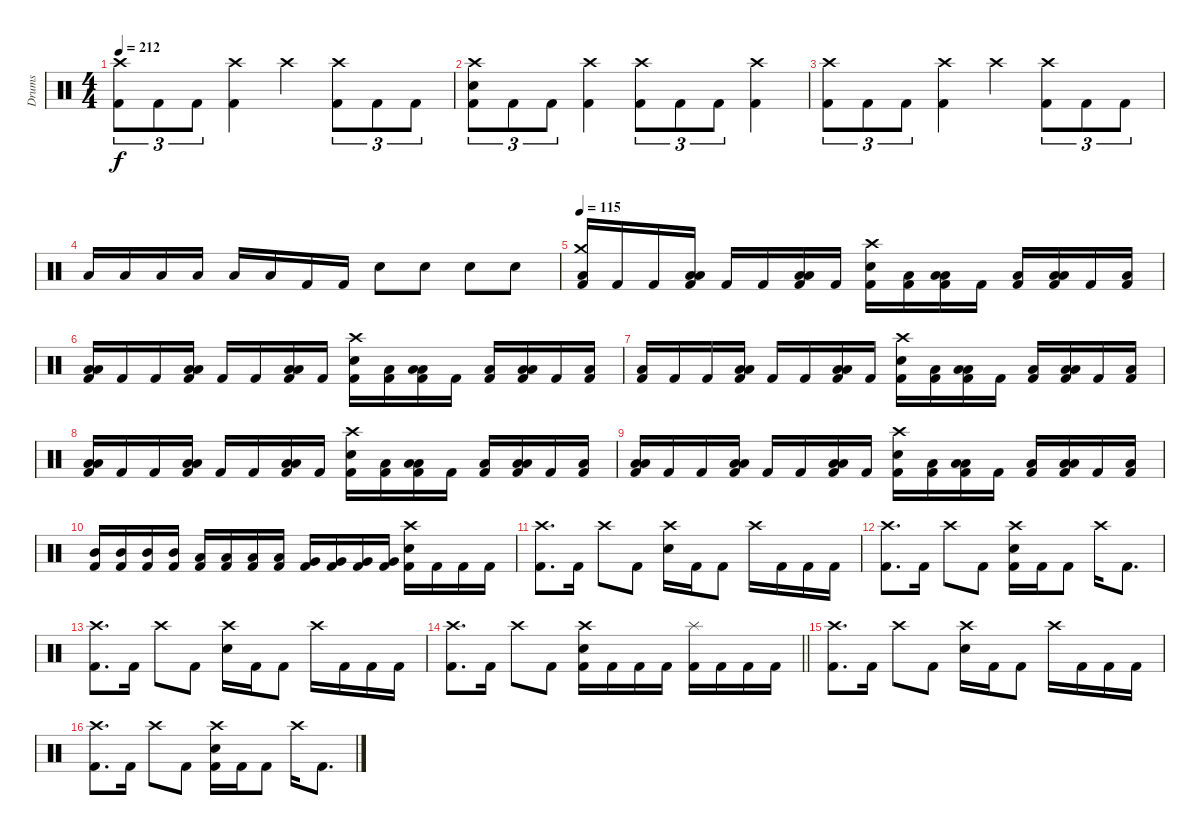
\track ("Drums" "Drums") {instrument percussion}
\staff {score}
\articulation defaults
\ts (4 4)
\tempo 212
\clef neutral
\ks c
("Crash high (hit)" "Kick (hit) 2").8{tu (3 2) dy f} "Kick (hit) 2".8{tu (3 2)} "Kick (hit) 2".8{tu (3 2)} ("Crash high (hit)" "Kick (hit) 2").4 "Crash high (hit)".4 ("Crash high (hit)" "Kick (hit) 2").8{tu (3 2)} "Kick (hit) 2".8{tu (3 2)} "Kick (hit) 2".8{tu (3 2)} |
("Crash high (hit)" "Electric Snare (hit)" "Kick (hit) 2").8{tu (3 2)} "Kick (hit) 2".8{tu (3 2)} "Kick (hit) 2".8{tu (3 2)} ("Crash high (hit)" "Kick (hit) 2").4 ("Crash high (hit)" "Kick (hit) 2").8{tu (3 2)} "Kick (hit) 2".8{tu (3 2)} "Kick (hit) 2".8{tu (3 2)} ("Crash high (hit)" "Kick (hit) 2").4 |
("Crash high (hit)" "Kick (hit) 2").8{tu (3 2)} "Kick (hit) 2".8{tu (3 2)} "Kick (hit) 2".8{tu (3 2)} ("Crash high (hit)" "Kick (hit) 2").4 "Crash high (hit)".4 ("Crash high (hit)" "Kick (hit) 2").8{tu (3 2)} "Kick (hit) 2".8{tu (3 2)} "Kick (hit) 2".8{tu (3 2)} |
"Low Tom (hit)".16 "Low Tom (hit)".16 "Low Tom (hit)".16 "Low Tom (hit)".16 "Low Tom (hit)".16 "Low Tom (hit)".16 "Kick (hit) 2".16 "Kick (hit) 2".16 "Electric Snare (hit)".8 "Electric Snare (hit)".8 "Electric Snare (hit)".8 "Electric Snare (hit)".8 |
\tempo 115
("Crash medium (hit)" "Low Floor Tom (hit)" "Kick (hit) 2").16 "Kick (hit) 2".16 "Kick (hit) 2".16 ("Low Tom (hit)" "Low Floor Tom (hit)" "Kick (hit) 2").16 "Kick (hit) 2".16 "Kick (hit) 2".16 ("Low Tom (hit)" "Low Floor Tom (hit)" "Kick (hit) 2").16 "Kick (hit) 2".16 ("Crash high (hit)" "Electric Snare (hit)" "Kick (hit) 2").16 ("Low Tom (hit)" "Kick (hit) 2").16 ("Low Tom (hit)" "Low Floor Tom (hit)" "Kick (hit) 2").16 "Kick (hit) 2".16 ("Low Tom (hit)" "Kick (hit) 2").16 ("Low Tom (hit)" "Low Floor Tom (hit)" "Kick (hit) 2").16 "Kick (hit) 2".16 ("Low Tom (hit)" "Kick (hit) 2").16 |
("Low Tom (hit)" "Low Floor Tom (hit)" "Kick (hit) 2").16 "Kick (hit) 2".16 "Kick (hit) 2".16 ("Low Tom (hit)" "Low Floor Tom (hit)" "Kick (hit) 2").16 "Kick (hit) 2".16 "Kick (hit) 2".16 ("Low Tom (hit)" "Low Floor Tom (hit)" "Kick (hit) 2").16 "Kick (hit) 2".16 ("Crash high (hit)" "Electric Snare (hit)" "Kick (hit) 2").16 ("Low Tom (hit)" "Kick (hit) 2").16 ("Low Tom (hit)" "Low Floor Tom (hit)" "Kick (hit) 2").16 "Kick (hit) 2".16 ("Low Tom (hit)" "Kick (hit) 2").16 ("Low Tom (hit)" "Low Floor Tom (hit)" "Kick (hit) 2").16 "Kick (hit) 2".16 ("Low Tom (hit)" "Kick (hit) 2").16 |
("Low Floor Tom (hit)" "Kick (hit) 2").16 "Kick (hit) 2".16 "Kick (hit) 2".16 ("Low Tom (hit)" "Low Floor Tom (hit)" "Kick (hit) 2").16 "Kick (hit) 2".16 "Kick (hit) 2".16 ("Low Tom (hit)" "Low Floor Tom (hit)" "Kick (hit) 2").16 "Kick (hit) 2".16 ("Crash high (hit)" "Electric Snare (hit)" "Kick (hit) 2").16 ("Low Tom (hit)" "Kick (hit) 2").16 ("Low Tom (hit)" "Low Floor Tom (hit)" "Kick (hit) 2").16 "Kick (hit) 2".16 ("Low Tom (hit)" "Kick (hit) 2").16 ("Low Tom (hit)" "Low Floor Tom (hit)" "Kick (hit) 2").16 "Kick (hit) 2".16 ("Low Tom (hit)" "Kick (hit) 2").16 |
("Low Tom (hit)" "Low Floor Tom (hit)" "Kick (hit) 2").16 "Kick (hit) 2".16 "Kick (hit) 2".16 ("Low Tom (hit)" "Low Floor Tom (hit)" "Kick (hit) 2").16 "Kick (hit) 2".16 "Kick (hit) 2".16 ("Low Tom (hit)" "Low Floor Tom (hit)" "Kick (hit) 2").16 "Kick (hit) 2".16 ("Crash high (hit)" "Electric Snare (hit)" "Kick (hit) 2").16 ("Low Tom (hit)" "Kick (hit) 2").16 ("Low Tom (hit)" "Low Floor Tom (hit)" "Kick (hit) 2").16 "Kick (hit) 2".16 ("Low Tom (hit)" "Kick (hit) 2").16 ("Low Tom (hit)" "Low Floor Tom (hit)" "Kick (hit) 2").16 "Kick (hit) 2".16 ("Low Tom (hit)" "Kick (hit) 2").16 |
("Low Tom (hit)" "Low Floor Tom (hit)" "Kick (hit) 2").16 "Kick (hit) 2".16 "Kick (hit) 2".16 ("Low Tom (hit)" "Low Floor Tom (hit)" "Kick (hit) 2").16 "Kick (hit) 2".16 "Kick (hit) 2".16 ("Low Tom (hit)" "Low Floor Tom (hit)" "Kick (hit) 2").16 "Kick (hit) 2".16 ("Crash high (hit)" "Electric Snare (hit)" "Kick (hit) 2").16 ("Low Tom (hit)" "Kick (hit) 2").16 ("Low Tom (hit)" "Low Floor Tom (hit)" "Kick (hit) 2").16 "Kick (hit) 2".16 ("Low Tom (hit)" "Kick (hit) 2").16 ("Low Tom (hit)" "Low Floor Tom (hit)" "Kick (hit) 2").16 "Kick (hit) 2".16 ("Low Tom (hit)" "Kick (hit) 2").16 |
("Mid Tom (hit)" "Kick (hit) 2").16 ("Mid Tom (hit)" "Kick (hit) 2").16 ("Mid Tom (hit)" "Kick (hit) 2").16 ("Mid Tom (hit)" "Kick (hit) 2").16 ("Low Tom (hit)" "Kick (hit) 2").16 ("Low Tom (hit)" "Kick (hit) 2").16 ("Low Tom (hit)" "Kick (hit) 2").16 ("Low Tom (hit)" "Kick (hit) 2").16 ("Very Low Tom (hit)" "Kick (hit) 2").16 ("Very Low Tom (hit)" "Kick (hit) 2").16 ("Very Low Tom (hit)" "Kick (hit) 2").16 ("Very Low Tom (hit)" "Kick (hit) 2").16 ("Crash high (hit)" "Electric Snare (hit)" "Kick (hit) 2").16 "Kick (hit) 2".16 "Kick (hit) 2".16 "Kick (hit) 2".16 |
("Crash high (hit)" "Kick (hit) 2").8{d} "Kick (hit) 2".16 "Crash high (hit)".8 "Kick (hit) 2".8 ("Crash high (hit)" "Electric Snare (hit)").16 "Kick (hit) 2".16 "Kick (hit) 2".8 "Crash high (hit)".16 "Kick (hit) 2".16 "Kick (hit) 2".16 "Kick (hit) 2".16 |
("Crash high (hit)" "Kick (hit) 2").8{d} "Kick (hit) 2".16 "Crash high (hit)".8 "Kick (hit) 2".8 ("Crash high (hit)" "Electric Snare (hit)" "Kick (hit) 2").16 "Kick (hit) 2".16 "Kick (hit) 2".8 "Crash high (hit)".16 "Kick (hit) 2".8{d} |
("Crash high (hit)" "Kick (hit) 2").8{d} "Kick (hit) 2".16 "Crash high (hit)".8 "Kick (hit) 2".8 ("Crash high (hit)" "Electric Snare (hit)").16 "Kick (hit) 2".16 "Kick (hit) 2".8 "Crash high (hit)".16 "Kick (hit) 2".16 "Kick (hit) 2".16 "Kick (hit) 2".16 |
\barLineRight lightlight
("Crash high (hit)" "Kick (hit) 2").8{d} "Kick (hit) 2".16 "Crash high (hit)".8 "Kick (hit) 2".8 ("Crash high (hit)" "Electric Snare (hit)" "Kick (hit) 2").16 "Kick (hit) 2".16 "Kick (hit) 2".16 "Kick (hit) 2".16 ("Splash (hit)" "Kick (hit) 2").16 "Kick (hit) 2".16 "Kick (hit) 2".16 "Kick (hit) 2".16 |
("Crash high (hit)" "Kick (hit) 2").8{d} "Kick (hit) 2".16 "Crash high (hit)".8 "Kick (hit) 2".8 ("Crash high (hit)" "Electric Snare (hit)").16 "Kick (hit) 2".16 "Kick (hit) 2".8 "Crash high (hit)".16 "Kick (hit) 2".16 "Kick (hit) 2".16 "Kick (hit) 2".16 |
("Crash high (hit)" "Kick (hit) 2").8{d} "Kick (hit) 2".16 "Crash high (hit)".8 "Kick (hit) 2".8 ("Crash high (hit)" "Electric Snare (hit)" "Kick (hit) 2").16 "Kick (hit) 2".16 "Kick (hit) 2".8 "Crash high (hit)".16 "Kick (hit) 2".8{d}
